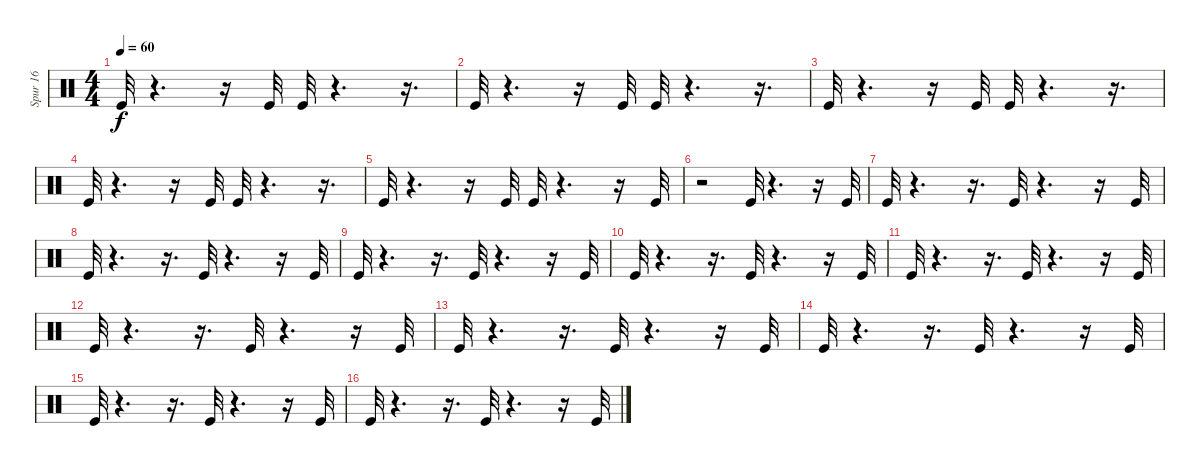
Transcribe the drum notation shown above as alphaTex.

\track ("Spur 16" "Spur 16") {instrument percussion}
\staff {score}
\articulation defaults
\ts (4 4)
\tempo 60
\clef neutral
\ks c "Kick (hit)".32{dy f}
r.4{d} r.16 "Kick (hit)".32 "Kick (hit)".32 r.4{d} r.16{d} |
"Kick (hit)".32 r.4{d} r.16 "Kick (hit)".32 "Kick (hit)".32 r.4{d} r.16{d} |
"Kick (hit)".32 r.4{d} r.16 "Kick (hit)".32 "Kick (hit)".32 r.4{d} r.16{d} |
"Kick (hit)".32 r.4{d} r.16 "Kick (hit)".32 "Kick (hit)".32 r.4{d} r.16{d} |
"Kick (hit)".32 r.4{d} r.16 "Kick (hit)".32 "Kick (hit)".32 r.4{d} r.16 "Kick (hit)".32 |
r.2 "Kick (hit)".32 r.4{d} r.16 "Kick (hit)".32 |
"Kick (hit)".32 r.4{d} r.16{d} "Kick (hit)".32 r.4{d} r.16 "Kick (hit)".32 |
"Kick (hit)".32 r.4{d} r.16{d} "Kick (hit)".32 r.4{d} r.16 "Kick (hit)".32 |
"Kick (hit)".32 r.4{d} r.16{d} "Kick (hit)".32 r.4{d} r.16 "Kick (hit)".32 |
"Kick (hit)".32 r.4{d} r.16{d} "Kick (hit)".32 r.4{d} r.16 "Kick (hit)".32 |
"Kick (hit)".32 r.4{d} r.16{d} "Kick (hit)".32 r.4{d} r.16 "Kick (hit)".32 |
"Kick (hit)".32 r.4{d} r.16{d} "Kick (hit)".32 r.4{d} r.16 "Kick (hit)".32 |
"Kick (hit)".32 r.4{d} r.16{d} "Kick (hit)".32 r.4{d} r.16 "Kick (hit)".32 |
"Kick (hit)".32 r.4{d} r.16{d} "Kick (hit)".32 r.4{d} r.16 "Kick (hit)".32 |
"Kick (hit)".32 r.4{d} r.16{d} "Kick (hit)".32 r.4{d} r.16 "Kick (hit)".32 |
"Kick (hit)".32 r.4{d} r.16{d} "Kick (hit)".32 r.4{d} r.16 "Kick (hit)".32
